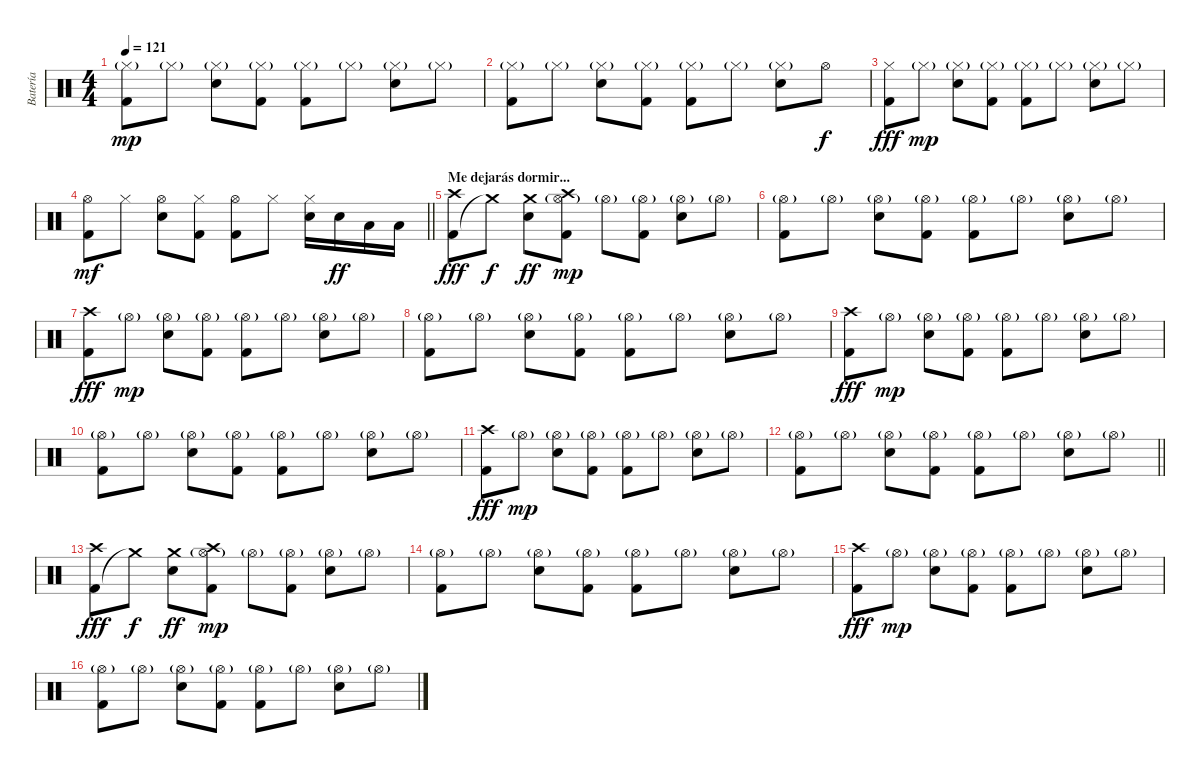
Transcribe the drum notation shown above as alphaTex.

\track ("Batería" "Batería") {instrument percussion}
\staff {score}
\articulation defaults
\ts (4 4)
\tempo 121
\clef neutral
\ks c
("Kick (hit) 2" "Hi-Hat (closed)"{g}).8{dy mp} "Hi-Hat (closed)"{g}.8 ("Snare (hit) 2" "Hi-Hat (closed)"{g}).8 ("Kick (hit) 2" "Hi-Hat (closed)"{g}).8 ("Kick (hit) 2" "Hi-Hat (closed)"{g}).8 "Hi-Hat (closed)"{g}.8 ("Snare (hit) 2" "Hi-Hat (closed)"{g}).8 "Hi-Hat (closed)"{g}.8 |
("Kick (hit) 2" "Hi-Hat (closed)"{g}).8 "Hi-Hat (closed)"{g}.8 ("Snare (hit) 2" "Hi-Hat (closed)"{g}).8 ("Kick (hit) 2" "Hi-Hat (closed)"{g}).8 ("Kick (hit) 2" "Hi-Hat (closed)"{g}).8 "Hi-Hat (closed)"{g}.8 ("Snare (hit) 2" "Hi-Hat (closed)"{g}).8 "Hi-Hat (open)".8{dy f} |
("Kick (hit) 2" "Hi-Hat (closed)").8{dy fff} "Hi-Hat (closed)"{g}.8{dy mp} ("Snare (hit) 2" "Hi-Hat (closed)"{g}).8 ("Kick (hit) 2" "Hi-Hat (closed)"{g}).8 ("Kick (hit) 2" "Hi-Hat (closed)"{g}).8 "Hi-Hat (closed)"{g}.8 ("Snare (hit) 2" "Hi-Hat (closed)"{g}).8 "Hi-Hat (closed)"{g}.8 |
\barLineRight lightlight
("Kick (hit) 2" "Hi-Hat (open)").8{dy mf} "Hi-Hat (closed)".8 ("Snare (hit) 2" "Hi-Hat (open)").8 ("Kick (hit) 2" "Hi-Hat (closed)").8 ("Kick (hit) 2" "Hi-Hat (open)").8 "Hi-Hat (closed)".8 ("Snare (hit) 2" "Hi-Hat (closed)").16 "Snare (hit) 2".16{dy ff} "Low Tom (hit)".16 "Low Tom (hit)".16 |
\section ("" "Me dejarás dormir...")
("Kick (hit) 2" "Crash high (hit)").8{dy fff} "Crash medium (hit)"{t}.8{dy f} ("Snare (hit) 2" "Crash medium (hit)").8{dy ff} ("Kick (hit) 2" "Hi-Hat (open)"{g} "Crash high (hit)").8{dy mp} "Hi-Hat (open)"{g}.8 ("Kick (hit) 2" "Hi-Hat (open)"{g}).8 ("Snare (hit) 2" "Hi-Hat (open)"{g}).8 "Hi-Hat (open)"{g}.8 |
("Kick (hit) 2" "Hi-Hat (open)"{g}).8 "Hi-Hat (open)"{g}.8 ("Snare (hit) 2" "Hi-Hat (open)"{g}).8 ("Kick (hit) 2" "Hi-Hat (open)"{g}).8 ("Kick (hit) 2" "Hi-Hat (open)"{g}).8 "Hi-Hat (open)"{g}.8 ("Snare (hit) 2" "Hi-Hat (open)"{g}).8 "Hi-Hat (open)"{g}.8 |
("Kick (hit) 2" "Crash high (hit)").8{dy fff} "Hi-Hat (open)"{g}.8{dy mp} ("Snare (hit) 2" "Hi-Hat (open)"{g}).8 ("Kick (hit) 2" "Hi-Hat (open)"{g}).8 ("Kick (hit) 2" "Hi-Hat (open)"{g}).8 "Hi-Hat (open)"{g}.8 ("Snare (hit) 2" "Hi-Hat (open)"{g}).8 "Hi-Hat (open)"{g}.8 |
("Kick (hit) 2" "Hi-Hat (open)"{g}).8 "Hi-Hat (open)"{g}.8 ("Snare (hit) 2" "Hi-Hat (open)"{g}).8 ("Kick (hit) 2" "Hi-Hat (open)"{g}).8 ("Kick (hit) 2" "Hi-Hat (open)"{g}).8 "Hi-Hat (open)"{g}.8 ("Snare (hit) 2" "Hi-Hat (open)"{g}).8 "Hi-Hat (open)"{g}.8 |
("Kick (hit) 2" "Crash high (hit)").8{dy fff} "Hi-Hat (open)"{g}.8{dy mp} ("Snare (hit) 2" "Hi-Hat (open)"{g}).8 ("Kick (hit) 2" "Hi-Hat (open)"{g}).8 ("Kick (hit) 2" "Hi-Hat (open)"{g}).8 "Hi-Hat (open)"{g}.8 ("Snare (hit) 2" "Hi-Hat (open)"{g}).8 "Hi-Hat (open)"{g}.8 |
("Kick (hit) 2" "Hi-Hat (open)"{g}).8 "Hi-Hat (open)"{g}.8 ("Snare (hit) 2" "Hi-Hat (open)"{g}).8 ("Kick (hit) 2" "Hi-Hat (open)"{g}).8 ("Kick (hit) 2" "Hi-Hat (open)"{g}).8 "Hi-Hat (open)"{g}.8 ("Snare (hit) 2" "Hi-Hat (open)"{g}).8 "Hi-Hat (open)"{g}.8 |
("Kick (hit) 2" "Crash high (hit)").8{dy fff} "Hi-Hat (open)"{g}.8{dy mp} ("Snare (hit) 2" "Hi-Hat (open)"{g}).8 ("Kick (hit) 2" "Hi-Hat (open)"{g}).8 ("Kick (hit) 2" "Hi-Hat (open)"{g}).8 "Hi-Hat (open)"{g}.8 ("Snare (hit) 2" "Hi-Hat (open)"{g}).8 "Hi-Hat (open)"{g}.8 |
\barLineRight lightlight
("Kick (hit) 2" "Hi-Hat (open)"{g}).8 "Hi-Hat (open)"{g}.8 ("Snare (hit) 2" "Hi-Hat (open)"{g}).8 ("Kick (hit) 2" "Hi-Hat (open)"{g}).8 ("Kick (hit) 2" "Hi-Hat (open)"{g}).8 "Hi-Hat (open)"{g}.8 ("Snare (hit) 2" "Hi-Hat (open)"{g}).8 "Hi-Hat (open)"{g}.8 |
("Kick (hit) 2" "Crash high (hit)").8{dy fff} "Crash medium (hit)"{t}.8{dy f} ("Snare (hit) 2" "Crash medium (hit)").8{dy ff} ("Kick (hit) 2" "Hi-Hat (open)"{g} "Crash high (hit)").8{dy mp} "Hi-Hat (open)"{g}.8 ("Kick (hit) 2" "Hi-Hat (open)"{g}).8 ("Snare (hit) 2" "Hi-Hat (open)"{g}).8 "Hi-Hat (open)"{g}.8 |
("Kick (hit) 2" "Hi-Hat (open)"{g}).8 "Hi-Hat (open)"{g}.8 ("Snare (hit) 2" "Hi-Hat (open)"{g}).8 ("Kick (hit) 2" "Hi-Hat (open)"{g}).8 ("Kick (hit) 2" "Hi-Hat (open)"{g}).8 "Hi-Hat (open)"{g}.8 ("Snare (hit) 2" "Hi-Hat (open)"{g}).8 "Hi-Hat (open)"{g}.8 |
("Kick (hit) 2" "Crash high (hit)").8{dy fff} "Hi-Hat (open)"{g}.8{dy mp} ("Snare (hit) 2" "Hi-Hat (open)"{g}).8 ("Kick (hit) 2" "Hi-Hat (open)"{g}).8 ("Kick (hit) 2" "Hi-Hat (open)"{g}).8 "Hi-Hat (open)"{g}.8 ("Snare (hit) 2" "Hi-Hat (open)"{g}).8 "Hi-Hat (open)"{g}.8 |
("Kick (hit) 2" "Hi-Hat (open)"{g}).8 "Hi-Hat (open)"{g}.8 ("Snare (hit) 2" "Hi-Hat (open)"{g}).8 ("Kick (hit) 2" "Hi-Hat (open)"{g}).8 ("Kick (hit) 2" "Hi-Hat (open)"{g}).8 "Hi-Hat (open)"{g}.8 ("Snare (hit) 2" "Hi-Hat (open)"{g}).8 "Hi-Hat (open)"{g}.8
